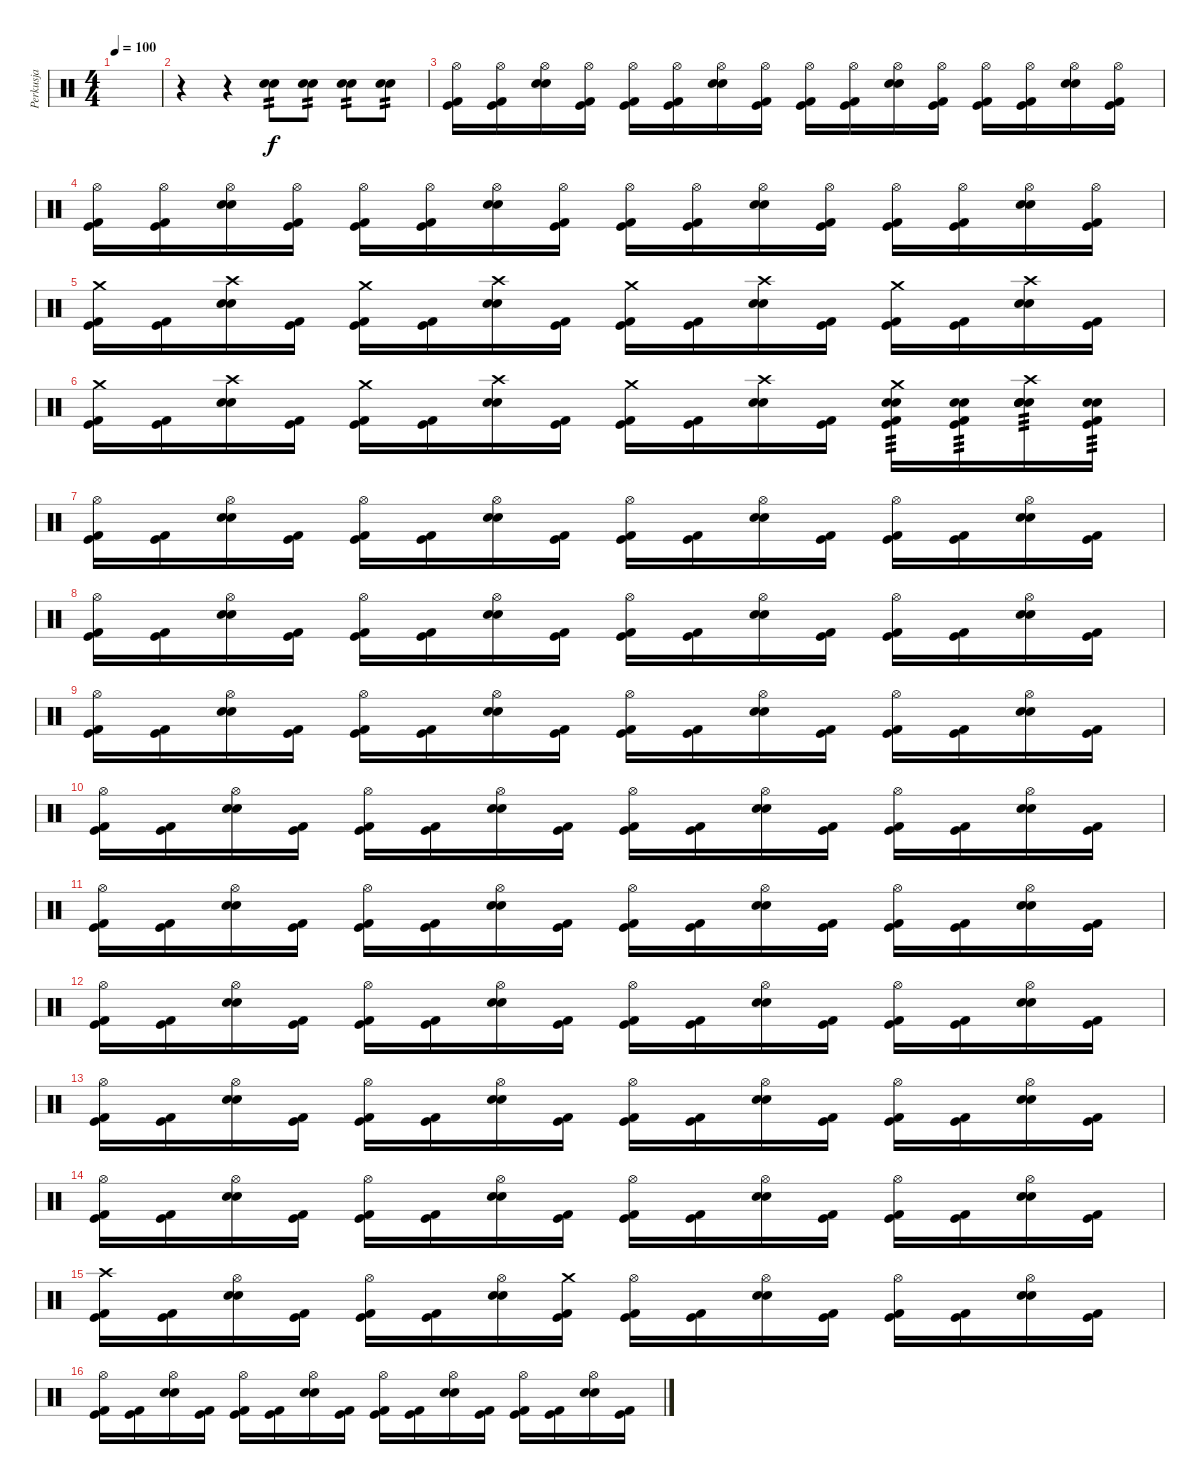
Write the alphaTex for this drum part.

\track ("Perkusja" "Perkusja") {instrument percussion}
\staff {score}
\articulation defaults
\ts (4 4)
\tempo 100
\clef neutral
\ks c
|
r.4 r.4 ("Snare (hit) 2" "Electric Snare (hit)").8{tp 2} ("Snare (hit) 2" "Electric Snare (hit)").8{tp 2} ("Snare (hit) 2" "Electric Snare (hit)").8{tp 2} ("Snare (hit) 2" "Electric Snare (hit)").8{tp 2} |
("Kick (hit) 2" "Kick (hit)" "Hi-Hat (open)").16 ("Kick (hit) 2" "Kick (hit)" "Hi-Hat (open)").16 ("Snare (hit) 2" "Electric Snare (hit)" "Hi-Hat (open)").16 ("Kick (hit) 2" "Kick (hit)" "Hi-Hat (open)").16 ("Kick (hit) 2" "Kick (hit)" "Hi-Hat (open)").16 ("Kick (hit) 2" "Kick (hit)" "Hi-Hat (open)").16 ("Snare (hit) 2" "Electric Snare (hit)" "Hi-Hat (open)").16 ("Kick (hit) 2" "Kick (hit)" "Hi-Hat (open)").16 ("Kick (hit) 2" "Kick (hit)" "Hi-Hat (open)").16 ("Kick (hit) 2" "Kick (hit)" "Hi-Hat (open)").16 ("Snare (hit) 2" "Electric Snare (hit)" "Hi-Hat (open)").16 ("Kick (hit) 2" "Kick (hit)" "Hi-Hat (open)").16 ("Kick (hit) 2" "Kick (hit)" "Hi-Hat (open)").16 ("Kick (hit) 2" "Kick (hit)" "Hi-Hat (open)").16 ("Snare (hit) 2" "Electric Snare (hit)" "Hi-Hat (open)").16 ("Kick (hit) 2" "Kick (hit)" "Hi-Hat (open)").16 |
("Kick (hit) 2" "Kick (hit)" "Hi-Hat (open)").16 ("Kick (hit) 2" "Kick (hit)" "Hi-Hat (open)").16 ("Snare (hit) 2" "Electric Snare (hit)" "Hi-Hat (open)").16 ("Kick (hit) 2" "Kick (hit)" "Hi-Hat (open)").16 ("Kick (hit) 2" "Kick (hit)" "Hi-Hat (open)").16 ("Kick (hit) 2" "Kick (hit)" "Hi-Hat (open)").16 ("Snare (hit) 2" "Electric Snare (hit)" "Hi-Hat (open)").16 ("Kick (hit) 2" "Kick (hit)" "Hi-Hat (open)").16 ("Kick (hit) 2" "Kick (hit)" "Hi-Hat (open)").16 ("Kick (hit) 2" "Kick (hit)" "Hi-Hat (open)").16 ("Snare (hit) 2" "Electric Snare (hit)" "Hi-Hat (open)").16 ("Kick (hit) 2" "Kick (hit)" "Hi-Hat (open)").16 ("Kick (hit) 2" "Kick (hit)" "Hi-Hat (open)").16 ("Kick (hit) 2" "Kick (hit)" "Hi-Hat (open)").16 ("Snare (hit) 2" "Electric Snare (hit)" "Hi-Hat (open)").16 ("Kick (hit) 2" "Kick (hit)" "Hi-Hat (open)").16 |
("Kick (hit) 2" "Kick (hit)" "Crash medium (hit)").16 ("Kick (hit) 2" "Kick (hit)").16 ("Snare (hit) 2" "Electric Snare (hit)" "Crash high (hit)").16 ("Kick (hit) 2" "Kick (hit)").16 ("Kick (hit) 2" "Kick (hit)" "Crash medium (hit)").16 ("Kick (hit) 2" "Kick (hit)").16 ("Snare (hit) 2" "Electric Snare (hit)" "Crash high (hit)").16 ("Kick (hit) 2" "Kick (hit)").16 ("Kick (hit) 2" "Kick (hit)" "Crash medium (hit)").16 ("Kick (hit) 2" "Kick (hit)").16 ("Snare (hit) 2" "Electric Snare (hit)" "Crash high (hit)").16 ("Kick (hit) 2" "Kick (hit)").16 ("Kick (hit) 2" "Kick (hit)" "Crash medium (hit)").16 ("Kick (hit) 2" "Kick (hit)").16 ("Snare (hit) 2" "Electric Snare (hit)" "Crash high (hit)").16 ("Kick (hit) 2" "Kick (hit)").16 |
("Kick (hit) 2" "Kick (hit)" "Crash medium (hit)").16 ("Kick (hit) 2" "Kick (hit)").16 ("Snare (hit) 2" "Electric Snare (hit)" "Crash high (hit)").16 ("Kick (hit) 2" "Kick (hit)").16 ("Kick (hit) 2" "Kick (hit)" "Crash medium (hit)").16 ("Kick (hit) 2" "Kick (hit)").16 ("Snare (hit) 2" "Electric Snare (hit)" "Crash high (hit)").16 ("Kick (hit) 2" "Kick (hit)").16 ("Kick (hit) 2" "Kick (hit)" "Crash medium (hit)").16 ("Kick (hit) 2" "Kick (hit)").16 ("Snare (hit) 2" "Electric Snare (hit)" "Crash high (hit)").16 ("Kick (hit) 2" "Kick (hit)").16 ("Kick (hit) 2" "Kick (hit)" "Crash medium (hit)" "Snare (hit) 2" "Electric Snare (hit)").16{tp 3} ("Kick (hit) 2" "Kick (hit)" "Snare (hit) 2" "Electric Snare (hit)").16{tp 3} ("Snare (hit) 2" "Electric Snare (hit)" "Crash high (hit)" "Snare (hit) 2" "Electric Snare (hit)").16{tp 3} ("Kick (hit) 2" "Kick (hit)" "Snare (hit) 2" "Electric Snare (hit)").16{tp 3} |
("Kick (hit) 2" "Kick (hit)" "Hi-Hat (open)").16 ("Kick (hit) 2" "Kick (hit)").16 ("Snare (hit) 2" "Electric Snare (hit)" "Hi-Hat (open)").16 ("Kick (hit) 2" "Kick (hit)").16 ("Kick (hit) 2" "Kick (hit)" "Hi-Hat (open)").16 ("Kick (hit) 2" "Kick (hit)").16 ("Snare (hit) 2" "Electric Snare (hit)" "Hi-Hat (open)").16 ("Kick (hit) 2" "Kick (hit)").16 ("Kick (hit) 2" "Kick (hit)" "Hi-Hat (open)").16 ("Kick (hit) 2" "Kick (hit)").16 ("Snare (hit) 2" "Electric Snare (hit)" "Hi-Hat (open)").16 ("Kick (hit) 2" "Kick (hit)").16 ("Kick (hit) 2" "Kick (hit)" "Hi-Hat (open)").16 ("Kick (hit) 2" "Kick (hit)").16 ("Snare (hit) 2" "Electric Snare (hit)" "Hi-Hat (open)").16 ("Kick (hit) 2" "Kick (hit)").16 |
("Kick (hit) 2" "Kick (hit)" "Hi-Hat (open)").16 ("Kick (hit) 2" "Kick (hit)").16 ("Snare (hit) 2" "Electric Snare (hit)" "Hi-Hat (open)").16 ("Kick (hit) 2" "Kick (hit)").16 ("Kick (hit) 2" "Kick (hit)" "Hi-Hat (open)").16 ("Kick (hit) 2" "Kick (hit)").16 ("Snare (hit) 2" "Electric Snare (hit)" "Hi-Hat (open)").16 ("Kick (hit) 2" "Kick (hit)").16 ("Kick (hit) 2" "Kick (hit)" "Hi-Hat (open)").16 ("Kick (hit) 2" "Kick (hit)").16 ("Snare (hit) 2" "Electric Snare (hit)" "Hi-Hat (open)").16 ("Kick (hit) 2" "Kick (hit)").16 ("Kick (hit) 2" "Kick (hit)" "Hi-Hat (open)").16 ("Kick (hit) 2" "Kick (hit)").16 ("Snare (hit) 2" "Electric Snare (hit)" "Hi-Hat (open)").16 ("Kick (hit) 2" "Kick (hit)").16 |
("Kick (hit) 2" "Kick (hit)" "Hi-Hat (open)").16 ("Kick (hit) 2" "Kick (hit)").16 ("Snare (hit) 2" "Electric Snare (hit)" "Hi-Hat (open)").16 ("Kick (hit) 2" "Kick (hit)").16 ("Kick (hit) 2" "Kick (hit)" "Hi-Hat (open)").16 ("Kick (hit) 2" "Kick (hit)").16 ("Snare (hit) 2" "Electric Snare (hit)" "Hi-Hat (open)").16 ("Kick (hit) 2" "Kick (hit)").16 ("Kick (hit) 2" "Kick (hit)" "Hi-Hat (open)").16 ("Kick (hit) 2" "Kick (hit)").16 ("Snare (hit) 2" "Electric Snare (hit)" "Hi-Hat (open)").16 ("Kick (hit) 2" "Kick (hit)").16 ("Kick (hit) 2" "Kick (hit)" "Hi-Hat (open)").16 ("Kick (hit) 2" "Kick (hit)").16 ("Snare (hit) 2" "Electric Snare (hit)" "Hi-Hat (open)").16 ("Kick (hit) 2" "Kick (hit)").16 |
("Kick (hit) 2" "Kick (hit)" "Hi-Hat (open)").16 ("Kick (hit) 2" "Kick (hit)").16 ("Snare (hit) 2" "Electric Snare (hit)" "Hi-Hat (open)").16 ("Kick (hit) 2" "Kick (hit)").16 ("Kick (hit) 2" "Kick (hit)" "Hi-Hat (open)").16 ("Kick (hit) 2" "Kick (hit)").16 ("Snare (hit) 2" "Electric Snare (hit)" "Hi-Hat (open)").16 ("Kick (hit) 2" "Kick (hit)").16 ("Kick (hit) 2" "Kick (hit)" "Hi-Hat (open)").16 ("Kick (hit) 2" "Kick (hit)").16 ("Snare (hit) 2" "Electric Snare (hit)" "Hi-Hat (open)").16 ("Kick (hit) 2" "Kick (hit)").16 ("Kick (hit) 2" "Kick (hit)" "Hi-Hat (open)").16 ("Kick (hit) 2" "Kick (hit)").16 ("Snare (hit) 2" "Electric Snare (hit)" "Hi-Hat (open)").16 ("Kick (hit) 2" "Kick (hit)").16 |
("Kick (hit) 2" "Kick (hit)" "Hi-Hat (open)").16 ("Kick (hit) 2" "Kick (hit)").16 ("Snare (hit) 2" "Electric Snare (hit)" "Hi-Hat (open)").16 ("Kick (hit) 2" "Kick (hit)").16 ("Kick (hit) 2" "Kick (hit)" "Hi-Hat (open)").16 ("Kick (hit) 2" "Kick (hit)").16 ("Snare (hit) 2" "Electric Snare (hit)" "Hi-Hat (open)").16 ("Kick (hit) 2" "Kick (hit)").16 ("Kick (hit) 2" "Kick (hit)" "Hi-Hat (open)").16 ("Kick (hit) 2" "Kick (hit)").16 ("Snare (hit) 2" "Electric Snare (hit)" "Hi-Hat (open)").16 ("Kick (hit) 2" "Kick (hit)").16 ("Kick (hit) 2" "Kick (hit)" "Hi-Hat (open)").16 ("Kick (hit) 2" "Kick (hit)").16 ("Snare (hit) 2" "Electric Snare (hit)" "Hi-Hat (open)").16 ("Kick (hit) 2" "Kick (hit)").16 |
("Kick (hit) 2" "Kick (hit)" "Hi-Hat (open)").16 ("Kick (hit) 2" "Kick (hit)").16 ("Snare (hit) 2" "Electric Snare (hit)" "Hi-Hat (open)").16 ("Kick (hit) 2" "Kick (hit)").16 ("Kick (hit) 2" "Kick (hit)" "Hi-Hat (open)").16 ("Kick (hit) 2" "Kick (hit)").16 ("Snare (hit) 2" "Electric Snare (hit)" "Hi-Hat (open)").16 ("Kick (hit) 2" "Kick (hit)").16 ("Kick (hit) 2" "Kick (hit)" "Hi-Hat (open)").16 ("Kick (hit) 2" "Kick (hit)").16 ("Snare (hit) 2" "Electric Snare (hit)" "Hi-Hat (open)").16 ("Kick (hit) 2" "Kick (hit)").16 ("Kick (hit) 2" "Kick (hit)" "Hi-Hat (open)").16 ("Kick (hit) 2" "Kick (hit)").16 ("Snare (hit) 2" "Electric Snare (hit)" "Hi-Hat (open)").16 ("Kick (hit) 2" "Kick (hit)").16 |
("Kick (hit) 2" "Kick (hit)" "Hi-Hat (open)").16 ("Kick (hit) 2" "Kick (hit)").16 ("Snare (hit) 2" "Electric Snare (hit)" "Hi-Hat (open)").16 ("Kick (hit) 2" "Kick (hit)").16 ("Kick (hit) 2" "Kick (hit)" "Hi-Hat (open)").16 ("Kick (hit) 2" "Kick (hit)").16 ("Snare (hit) 2" "Electric Snare (hit)" "Hi-Hat (open)").16 ("Kick (hit) 2" "Kick (hit)").16 ("Kick (hit) 2" "Kick (hit)" "Hi-Hat (open)").16 ("Kick (hit) 2" "Kick (hit)").16 ("Snare (hit) 2" "Electric Snare (hit)" "Hi-Hat (open)").16 ("Kick (hit) 2" "Kick (hit)").16 ("Kick (hit) 2" "Kick (hit)" "Hi-Hat (open)").16 ("Kick (hit) 2" "Kick (hit)").16 ("Snare (hit) 2" "Electric Snare (hit)" "Hi-Hat (open)").16 ("Kick (hit) 2" "Kick (hit)").16 |
("Kick (hit) 2" "Kick (hit)" "Hi-Hat (open)").16 ("Kick (hit) 2" "Kick (hit)").16 ("Snare (hit) 2" "Electric Snare (hit)" "Hi-Hat (open)").16 ("Kick (hit) 2" "Kick (hit)").16 ("Kick (hit) 2" "Kick (hit)" "Hi-Hat (open)").16 ("Kick (hit) 2" "Kick (hit)").16 ("Snare (hit) 2" "Electric Snare (hit)" "Hi-Hat (open)").16 ("Kick (hit) 2" "Kick (hit)").16 ("Kick (hit) 2" "Kick (hit)" "Hi-Hat (open)").16 ("Kick (hit) 2" "Kick (hit)").16 ("Snare (hit) 2" "Electric Snare (hit)" "Hi-Hat (open)").16 ("Kick (hit) 2" "Kick (hit)").16 ("Kick (hit) 2" "Kick (hit)" "Hi-Hat (open)").16 ("Kick (hit) 2" "Kick (hit)").16 ("Snare (hit) 2" "Electric Snare (hit)" "Hi-Hat (open)").16 ("Kick (hit) 2" "Kick (hit)").16 |
("Kick (hit) 2" "Kick (hit)" "Crash high (hit)").16 ("Kick (hit) 2" "Kick (hit)").16 ("Snare (hit) 2" "Electric Snare (hit)" "Hi-Hat (open)").16 ("Kick (hit) 2" "Kick (hit)").16 ("Kick (hit) 2" "Kick (hit)" "Hi-Hat (open)").16 ("Kick (hit) 2" "Kick (hit)").16 ("Snare (hit) 2" "Electric Snare (hit)" "Hi-Hat (open)").16 ("Kick (hit) 2" "Kick (hit)" "Crash medium (hit)").16 ("Kick (hit) 2" "Kick (hit)" "Hi-Hat (open)").16 ("Kick (hit) 2" "Kick (hit)").16 ("Snare (hit) 2" "Electric Snare (hit)" "Hi-Hat (open)").16 ("Kick (hit) 2" "Kick (hit)").16 ("Kick (hit) 2" "Kick (hit)" "Hi-Hat (open)").16 ("Kick (hit) 2" "Kick (hit)").16 ("Snare (hit) 2" "Electric Snare (hit)" "Hi-Hat (open)").16 ("Kick (hit) 2" "Kick (hit)").16 |
("Kick (hit) 2" "Kick (hit)" "Hi-Hat (open)").16 ("Kick (hit) 2" "Kick (hit)").16 ("Snare (hit) 2" "Electric Snare (hit)" "Hi-Hat (open)").16 ("Kick (hit) 2" "Kick (hit)").16 ("Kick (hit) 2" "Kick (hit)" "Hi-Hat (open)").16 ("Kick (hit) 2" "Kick (hit)").16 ("Snare (hit) 2" "Electric Snare (hit)" "Hi-Hat (open)").16 ("Kick (hit) 2" "Kick (hit)").16 ("Kick (hit) 2" "Kick (hit)" "Hi-Hat (open)").16 ("Kick (hit) 2" "Kick (hit)").16 ("Snare (hit) 2" "Electric Snare (hit)" "Hi-Hat (open)").16 ("Kick (hit) 2" "Kick (hit)").16 ("Kick (hit) 2" "Kick (hit)" "Hi-Hat (open)").16 ("Kick (hit) 2" "Kick (hit)").16 ("Snare (hit) 2" "Electric Snare (hit)" "Hi-Hat (open)").16 ("Kick (hit) 2" "Kick (hit)").16
